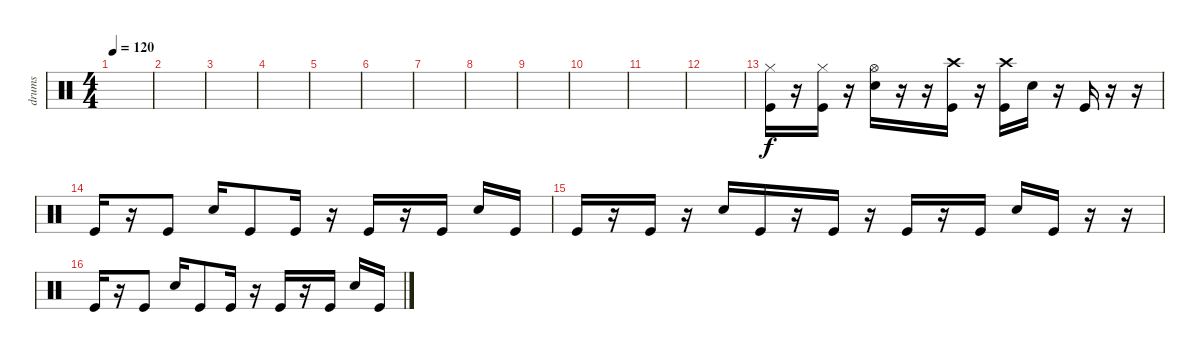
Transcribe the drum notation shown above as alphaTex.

\track ("drums" "drums") {instrument percussion}
\staff {score}
\articulation defaults
\ts (4 4)
\tempo 120
\clef neutral
\ks c
|
|
|
|
|
|
|
|
|
|
|
|
("Hi-Hat (closed)" "Kick (hit)").16 r.16 ("Hi-Hat (closed)" "Kick (hit)").16 r.16 ("Hi-Hat (open)" "Electric Snare (hit)").16 r.16 r.16 ("Crash high (hit)" "Kick (hit)").16 r.16 ("Crash high (hit)" "Kick (hit)").16 "Electric Snare (hit)".16 r.16 "Kick (hit)".16 r.16 r.16 |
"Kick (hit)".16 r.16 "Kick (hit)".8 "Electric Snare (hit)".16 "Kick (hit)".8 "Kick (hit)".16 r.16 "Kick (hit)".16 r.16 "Kick (hit)".16 "Electric Snare (hit)".16 "Kick (hit)".16 |
"Kick (hit)".16 r.16 "Kick (hit)".16 r.16 "Electric Snare (hit)".16 "Kick (hit)".16 r.16 "Kick (hit)".16 r.16 "Kick (hit)".16 r.16 "Kick (hit)".16 "Electric Snare (hit)".16 "Kick (hit)".16 r.16 r.16 |
"Kick (hit)".16 r.16 "Kick (hit)".8 "Electric Snare (hit)".16 "Kick (hit)".8 "Kick (hit)".16 r.16 "Kick (hit)".16 r.16 "Kick (hit)".16 "Electric Snare (hit)".16 "Kick (hit)".16
